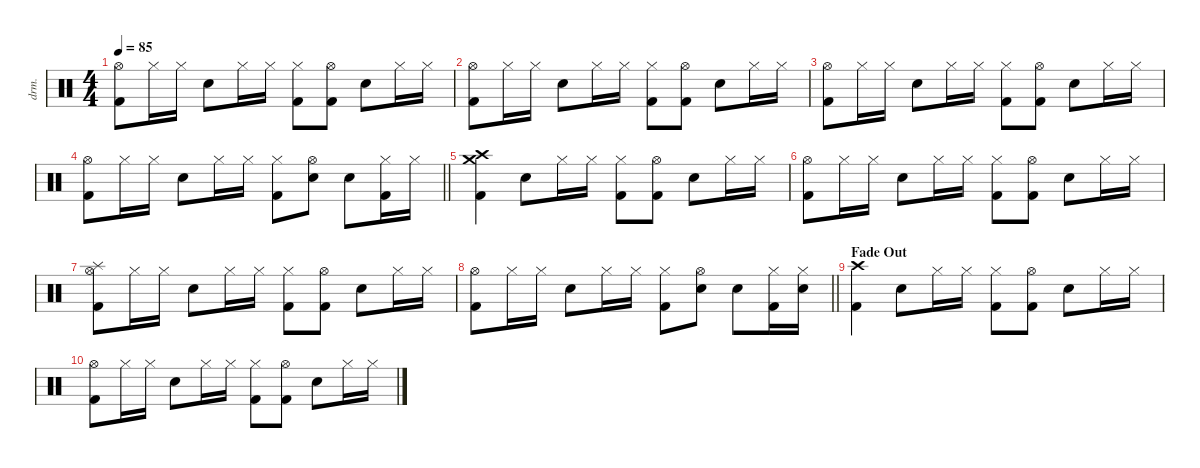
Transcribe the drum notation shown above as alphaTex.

\defaultSystemsLayout 4
\hideDynamics
\bracketExtendMode nobrackets
\otherSystemsTrackNameOrientation horizontal
\track ("Drums" "drm.") {defaultSystemsLayout 4 instrument percussion}
\staff {score}
\articulation defaults
\ts (4 4)
\tempo 85
\clef neutral
\ks c
("Hi-Hat (open)" "Kick (hit) 2").8{dy f} "Hi-Hat (closed)".16 "Hi-Hat (closed)".16 "Snare (hit) 2".8 "Hi-Hat (closed)".16 "Hi-Hat (closed)".16 ("Hi-Hat (closed)" "Kick (hit) 2").8 ("Hi-Hat (open)" "Kick (hit) 2").8 "Snare (hit) 2".8 "Hi-Hat (closed)".16 "Hi-Hat (closed)".16 |
("Hi-Hat (open)" "Kick (hit) 2").8 "Hi-Hat (closed)".16 "Hi-Hat (closed)".16 "Snare (hit) 2".8 "Hi-Hat (closed)".16 "Hi-Hat (closed)".16 ("Hi-Hat (closed)" "Kick (hit) 2").8 ("Hi-Hat (open)" "Kick (hit) 2").8 "Snare (hit) 2".8 "Hi-Hat (closed)".16 "Hi-Hat (closed)".16 |
("Hi-Hat (open)" "Kick (hit) 2").8 "Hi-Hat (closed)".16 "Hi-Hat (closed)".16 "Snare (hit) 2".8 "Hi-Hat (closed)".16 "Hi-Hat (closed)".16 ("Hi-Hat (closed)" "Kick (hit) 2").8 ("Hi-Hat (open)" "Kick (hit) 2").8 "Snare (hit) 2".8 "Hi-Hat (closed)".16 "Hi-Hat (closed)".16 |
\barLineRight lightlight
("Hi-Hat (open)" "Kick (hit) 2").8 "Hi-Hat (closed)".16 "Hi-Hat (closed)".16 "Snare (hit) 2".8 "Hi-Hat (closed)".16 "Hi-Hat (closed)".16 ("Hi-Hat (closed)" "Kick (hit) 2").8 ("Hi-Hat (open)" "Snare (hit) 2").8 "Snare (hit) 2".8 ("Hi-Hat (closed)" "Kick (hit) 2").16 "Hi-Hat (closed)".16 |
("Crash high (hit)" "Crash medium (hit)" "Kick (hit) 2").4 "Snare (hit) 2".8 "Hi-Hat (closed)".16 "Hi-Hat (closed)".16 ("Hi-Hat (closed)" "Kick (hit) 2").8 ("Hi-Hat (open)" "Kick (hit) 2").8 "Snare (hit) 2".8 "Hi-Hat (closed)".16 "Hi-Hat (closed)".16 |
("Hi-Hat (open)" "Kick (hit) 2").8 "Hi-Hat (closed)".16 "Hi-Hat (closed)".16 "Snare (hit) 2".8 "Hi-Hat (closed)".16 "Hi-Hat (closed)".16 ("Hi-Hat (closed)" "Kick (hit) 2").8 ("Hi-Hat (open)" "Kick (hit) 2").8 "Snare (hit) 2".8 "Hi-Hat (closed)".16 "Hi-Hat (closed)".16 |
("Hi-Hat (open)" "Splash (hit)" "Kick (hit) 2").8 "Hi-Hat (closed)".16 "Hi-Hat (closed)".16 "Snare (hit) 2".8 "Hi-Hat (closed)".16 "Hi-Hat (closed)".16 ("Hi-Hat (closed)" "Kick (hit) 2").8 ("Hi-Hat (open)" "Kick (hit) 2").8 "Snare (hit) 2".8 "Hi-Hat (closed)".16 "Hi-Hat (closed)".16 |
\barLineRight lightlight
("Hi-Hat (open)" "Kick (hit) 2").8 "Hi-Hat (closed)".16 "Hi-Hat (closed)".16 "Snare (hit) 2".8 "Hi-Hat (closed)".16 "Hi-Hat (closed)".16 ("Hi-Hat (closed)" "Kick (hit) 2").8 ("Hi-Hat (open)" "Snare (hit) 2").8 "Snare (hit) 2".8 ("Hi-Hat (closed)" "Kick (hit) 2").16 ("Hi-Hat (closed)" "Snare (hit) 2").16 |
\section ("" "Fade Out")
("Crash high (hit)" "Kick (hit) 2").4 "Snare (hit) 2".8 "Hi-Hat (closed)".16 "Hi-Hat (closed)".16 ("Hi-Hat (closed)" "Kick (hit) 2").8 ("Hi-Hat (open)" "Kick (hit) 2").8 "Snare (hit) 2".8 "Hi-Hat (closed)".16 "Hi-Hat (closed)".16 |
("Hi-Hat (open)" "Kick (hit) 2").8 "Hi-Hat (closed)".16 "Hi-Hat (closed)".16 "Snare (hit) 2".8 "Hi-Hat (closed)".16 "Hi-Hat (closed)".16 ("Hi-Hat (closed)" "Kick (hit) 2").8 ("Hi-Hat (open)" "Kick (hit) 2").8 "Snare (hit) 2".8 "Hi-Hat (closed)".16 "Hi-Hat (closed)".16
